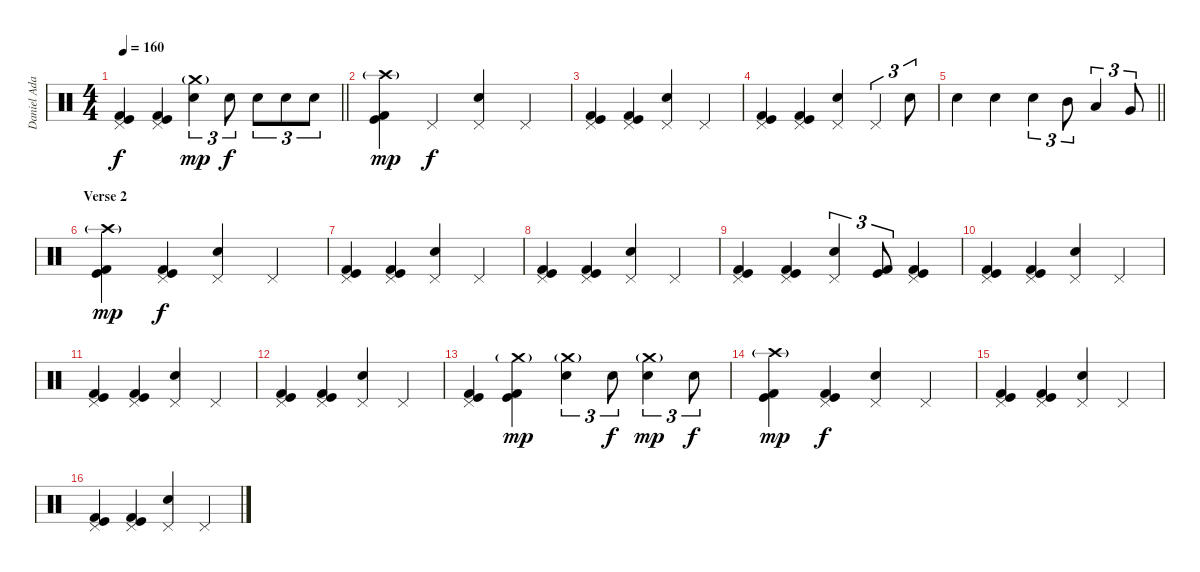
\track ("Daniel Adair" "Daniel Ada") {instrument percussion}
\staff {score}
\articulation defaults
\ts (4 4)
\tempo 160
\clef neutral
\barLineRight lightlight
\ks c
("Pedal Hi-Hat (hit)" "Kick (hit)" "Kick (hit) 2").4{dy f} ("Pedal Hi-Hat (hit)" "Kick (hit)" "Kick (hit) 2").4 ("Crash medium (hit)"{g} "Electric Snare (hit)").4{tu (3 2) dy mp} "Electric Snare (hit)".8{tu (3 2) dy f} "Electric Snare (hit)".8{tu (3 2)} "Electric Snare (hit)".8{tu (3 2)} "Electric Snare (hit)".8{tu (3 2)} |
\section ("" "")
("Crash high (hit)"{g} "Kick (hit)" "Kick (hit) 2").4{dy mp} "Pedal Hi-Hat (hit)".4{dy f} ("Pedal Hi-Hat (hit)" "Electric Snare (hit)").4 "Pedal Hi-Hat (hit)".4 |
("Pedal Hi-Hat (hit)" "Kick (hit)" "Kick (hit) 2").4 ("Pedal Hi-Hat (hit)" "Kick (hit)" "Kick (hit) 2").4 ("Pedal Hi-Hat (hit)" "Electric Snare (hit)").4 "Pedal Hi-Hat (hit)".4 |
("Pedal Hi-Hat (hit)" "Kick (hit)" "Kick (hit) 2").4 ("Pedal Hi-Hat (hit)" "Kick (hit)" "Kick (hit) 2").4 ("Pedal Hi-Hat (hit)" "Electric Snare (hit)").4 "Pedal Hi-Hat (hit)".4{tu (3 2)} "Electric Snare (hit)".8{tu (3 2)} |
\barLineRight lightlight "Electric Snare (hit)".4 "Electric Snare (hit)".4 "Electric Snare (hit)".4{tu (3 2)} "Mid Tom (hit)".8{tu (3 2)} "Low Tom (hit)".4{tu (3 2)} "Very Low Tom (hit)".8{tu (3 2)}
|
\section ("" "Verse 2")
("Crash high (hit)"{g} "Kick (hit)" "Kick (hit) 2").4{dy mp} ("Pedal Hi-Hat (hit)" "Kick (hit)" "Kick (hit) 2").4{dy f} ("Pedal Hi-Hat (hit)" "Electric Snare (hit)").4 "Pedal Hi-Hat (hit)".4 |
("Pedal Hi-Hat (hit)" "Kick (hit)" "Kick (hit) 2").4 ("Pedal Hi-Hat (hit)" "Kick (hit)" "Kick (hit) 2").4 ("Pedal Hi-Hat (hit)" "Electric Snare (hit)").4 "Pedal Hi-Hat (hit)".4 |
("Pedal Hi-Hat (hit)" "Kick (hit)" "Kick (hit) 2").4 ("Pedal Hi-Hat (hit)" "Kick (hit)" "Kick (hit) 2").4 ("Pedal Hi-Hat (hit)" "Electric Snare (hit)").4 "Pedal Hi-Hat (hit)".4 |
("Pedal Hi-Hat (hit)" "Kick (hit)" "Kick (hit) 2").4 ("Pedal Hi-Hat (hit)" "Kick (hit)" "Kick (hit) 2").4 ("Pedal Hi-Hat (hit)" "Electric Snare (hit)").4{tu (3 2)} ("Kick (hit)" "Kick (hit) 2").8{tu (3 2)} ("Pedal Hi-Hat (hit)" "Kick (hit)" "Kick (hit) 2").4 |
("Pedal Hi-Hat (hit)" "Kick (hit)" "Kick (hit) 2").4 ("Pedal Hi-Hat (hit)" "Kick (hit)" "Kick (hit) 2").4 ("Pedal Hi-Hat (hit)" "Electric Snare (hit)").4 "Pedal Hi-Hat (hit)".4 |
("Pedal Hi-Hat (hit)" "Kick (hit)" "Kick (hit) 2").4 ("Pedal Hi-Hat (hit)" "Kick (hit)" "Kick (hit) 2").4 ("Pedal Hi-Hat (hit)" "Electric Snare (hit)").4 "Pedal Hi-Hat (hit)".4 |
("Pedal Hi-Hat (hit)" "Kick (hit)" "Kick (hit) 2").4 ("Pedal Hi-Hat (hit)" "Kick (hit)" "Kick (hit) 2").4 ("Pedal Hi-Hat (hit)" "Electric Snare (hit)").4 "Pedal Hi-Hat (hit)".4 |
("Pedal Hi-Hat (hit)" "Kick (hit)" "Kick (hit) 2").4 ("Crash medium (hit)"{g} "Kick (hit)" "Kick (hit) 2").4{dy mp} ("Crash medium (hit)"{g} "Electric Snare (hit)").4{tu (3 2)} "Electric Snare (hit)".8{tu (3 2) dy f} ("Crash medium (hit)"{g} "Electric Snare (hit)").4{tu (3 2) dy mp} "Electric Snare (hit)".8{tu (3 2) dy f} |
("Crash high (hit)"{g} "Kick (hit)" "Kick (hit) 2").4{dy mp} ("Pedal Hi-Hat (hit)" "Kick (hit)" "Kick (hit) 2").4{dy f} ("Pedal Hi-Hat (hit)" "Electric Snare (hit)").4 "Pedal Hi-Hat (hit)".4 |
("Pedal Hi-Hat (hit)" "Kick (hit)" "Kick (hit) 2").4 ("Pedal Hi-Hat (hit)" "Kick (hit)" "Kick (hit) 2").4 ("Pedal Hi-Hat (hit)" "Electric Snare (hit)").4 "Pedal Hi-Hat (hit)".4 |
("Pedal Hi-Hat (hit)" "Kick (hit)" "Kick (hit) 2").4 ("Pedal Hi-Hat (hit)" "Kick (hit)" "Kick (hit) 2").4 ("Pedal Hi-Hat (hit)" "Electric Snare (hit)").4 "Pedal Hi-Hat (hit)".4
